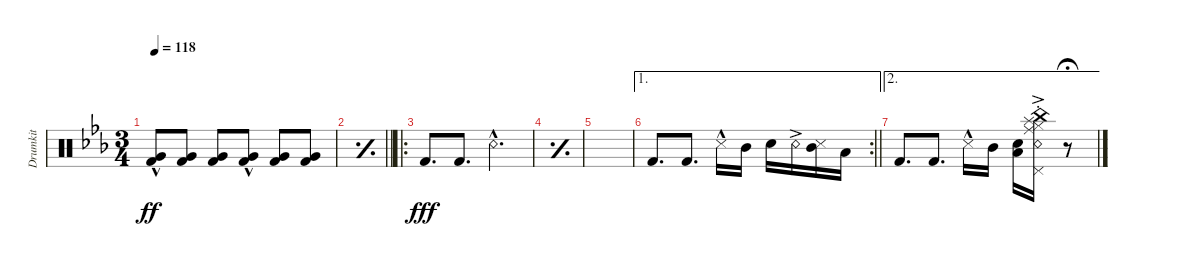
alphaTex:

\defaultSystemsLayout 4
\bracketExtendMode groupsimilarinstruments
\otherSystemsTrackNameOrientation horizontal
\track ("Drumkit" "Drumkit") {instrument percussion}
\staff {score}
\articulation defaults
\ts (3 4)
\scale
0.890741
\tempo 118
\accidentals auto
\clef neutral
\ottava regular
\simile none
\ks cminor
("Kick (hit) 2"{hac acc forcenatural} "Very Low Tom (hit)"{acc forcenatural}).8{dy ff beam Up} ("Kick (hit) 2"{acc forcenatural} "Very Low Tom (hit)"{acc forcenatural}).8{beam Up} ("Kick (hit) 2"{acc forcenatural} "Very Low Tom (hit)"{acc forcenatural}).8{beam Up} ("Kick (hit) 2"{hac acc forcenatural} "Very Low Tom (hit)"{acc forcenatural}).8{beam Up} ("Kick (hit) 2"{acc forcenatural} "Very Low Tom (hit)"{acc forcenatural}).8{beam Up} ("Kick (hit) 2"{acc forcenatural} "Very Low Tom (hit)"{acc forcenatural}).8{beam Up} |
\scale
0.842287
\simile simple
\barLineRight lightlight
|
\ro
\scale
1.15771
\simile none "Kick (hit) 2"{acc forcenatural}.8{d dy fff beam Up} "Kick (hit) 2"{acc forcenatural}.8{d beam Up} "Snare (rim shot)"{hac acc forcenatural}.4{d beam Down}
|
\simile simple
|
|
\ae 1
\rc 2
\simile none
\barLineRight lightlight "Kick (hit) 2"{acc forcenatural}.8{d beam Up} "Kick (hit) 2"{acc forcenatural}.8{d beam Up} "Snare (side stick) 3"{hac acc forcenatural}.16{beam Down} "Mid Tom (hit)"{acc forcenatural}.16{beam Down} "Snare (hit) 2"{acc forcenatural}.16{beam Down} "Snare (rim shot)"{ac acc forcenatural}.16{beam Down}
("Snare (side stick) 3"{acc forcenatural} "Mid Tom (hit)"{acc forcenatural}).16{beam Down} "Low Tom (hit)"{acc forcenatural}.16{beam Down} |
\ae 2 "Kick (hit) 2"{acc forcenatural}.8{d beam Up} "Kick (hit) 2"{acc forcenatural}.8{d beam Up} "Snare (side stick) 3"{hac acc forcenatural}.16{beam Down} "Mid Tom (hit)"{acc forcenatural}.16{beam Down}
("Snare (hit) 2"{acc forcenatural} "Low Tom (hit)"{acc forcenatural}).16{beam Down} ("Snare (rim shot)"{ac st acc forcenatural} "Ride (middle)"{ac st acc forcenatural} "Hi-Hat (closed)"{ac st acc forcenatural} "Splash (hit)"{ac st acc forcenatural} "China (hit)"{st acc forcenatural} "Pedal Hi-Hat (hit)"{st acc forcenatural}).16{beam Down} r.8{fermata (medium 1) beam Down}
